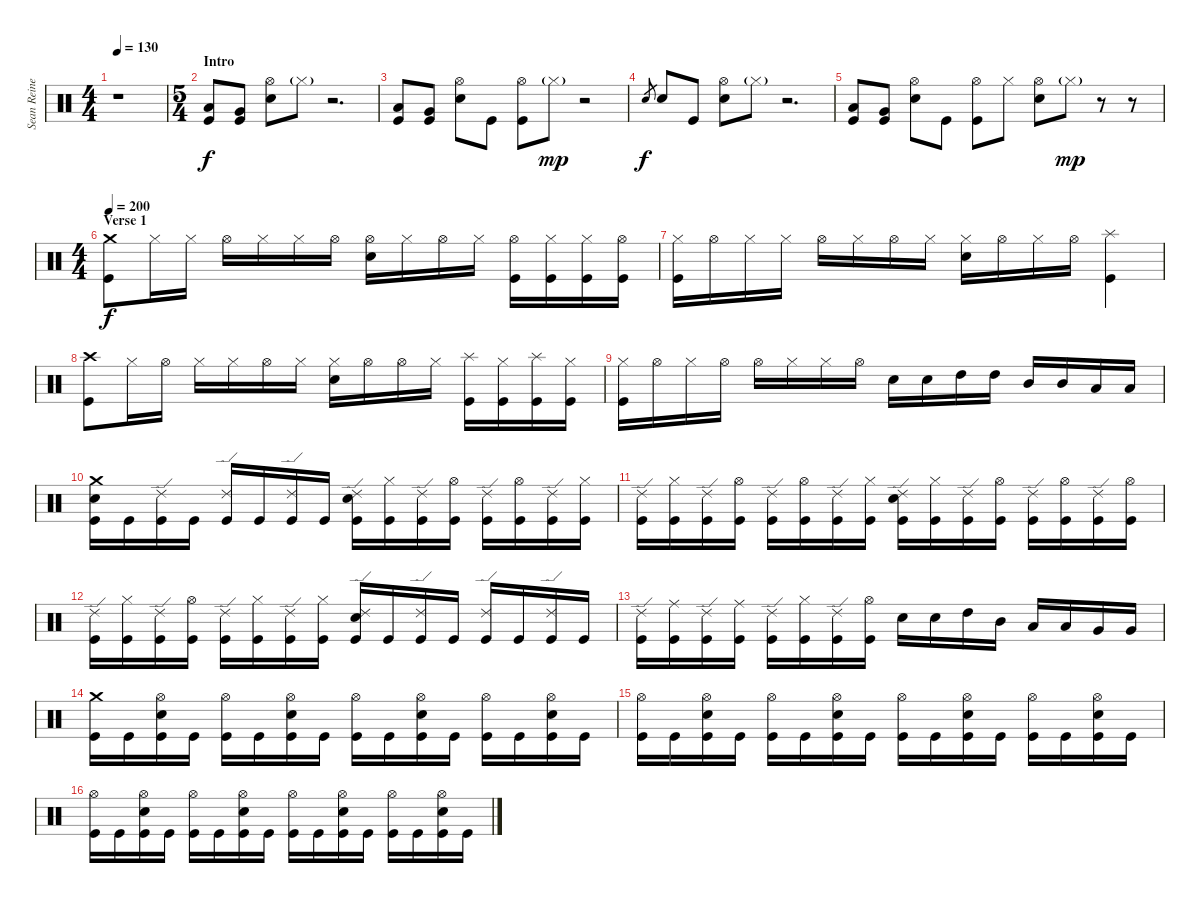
\track ("Sean Reinert " "Sean Reine") {instrument percussion}
\staff {score}
\articulation defaults
\ts (4 4)
\tempo 130
\tempo 145
\tempo 130
\clef neutral
\ks c
r.1{dy f} |
\ts (5 4)
\section ("" "Intro")
("Low Tom (hit)" "Kick (hit)").8 ("Very Low Tom (hit)" "Kick (hit)").8 ("Hi-Hat (open)" "Electric Snare (hit)").8 "Hi-Hat (closed)"{g}.8 r.2{d} |
("Low Tom (hit)" "Kick (hit)").8 ("Very Low Tom (hit)" "Kick (hit)").8 ("Hi-Hat (open)" "Electric Snare (hit)").8 "Kick (hit)".8 ("Hi-Hat (open)" "Kick (hit)").8 "Hi-Hat (closed)"{g}.8{dy mp} r.2 |
"Electric Snare (hit)".8{gr dy f} "Electric Snare (hit)".8 "Kick (hit)".8 ("Hi-Hat (open)" "Electric Snare (hit)").8 "Hi-Hat (closed)"{g}.8 r.2{d} |
("Low Tom (hit)" "Kick (hit)").8 ("Very Low Tom (hit)" "Kick (hit)").8 ("Hi-Hat (open)" "Electric Snare (hit)").8 "Kick (hit)".8 ("Hi-Hat (open)" "Kick (hit)").8 "Hi-Hat (closed)".8 ("Hi-Hat (open)" "Electric Snare (hit)").8 "Hi-Hat (closed)"{g}.8{dy mp} r.8 r.8 |
\ts (4 4)
\section ("" "Verse 1")
\tempo 200
("Crash medium (hit)" "Kick (hit)").8{dy f} "Hi-Hat (closed)".16 "Hi-Hat (closed)".16 "Hi-Hat (open)".16 "Hi-Hat (closed)".16 "Hi-Hat (closed)".16 "Hi-Hat (open)".16 ("Hi-Hat (open)" "Electric Snare (hit)").16 "Hi-Hat (closed)".16 "Hi-Hat (open)".16 "Hi-Hat (closed)".16 ("Hi-Hat (open)" "Kick (hit)").16 ("Hi-Hat (closed)" "Kick (hit)").16 ("Hi-Hat (closed)" "Kick (hit)").16 ("Hi-Hat (open)" "Kick (hit)").16 |
("Hi-Hat (closed)" "Kick (hit)").16 "Hi-Hat (open)".16 "Hi-Hat (closed)".16 "Hi-Hat (closed)".16 "Hi-Hat (open)".16 "Hi-Hat (closed)".16 "Hi-Hat (open)".16 "Hi-Hat (closed)".16 ("Hi-Hat (closed)" "Electric Snare (hit)").16 "Hi-Hat (open)".16 "Hi-Hat (closed)".16 "Hi-Hat (open)".16 ("Splash (hit)" "Kick (hit)").4 |
("Crash high (hit)" "Kick (hit)").8 "Hi-Hat (closed)".16 "Hi-Hat (open)".16 "Hi-Hat (closed)".16 "Hi-Hat (closed)".16 "Hi-Hat (open)".16 "Hi-Hat (closed)".16 ("Hi-Hat (closed)" "Electric Snare (hit)").16 "Hi-Hat (open)".16 "Hi-Hat (open)".16 "Hi-Hat (closed)".16 ("Splash (hit)" "Kick (hit)").16 ("Hi-Hat (closed)" "Kick (hit)").16 ("Splash (hit)" "Kick (hit)").16 ("Hi-Hat (closed)" "Kick (hit)").16 |
("Hi-Hat (closed)" "Kick (hit)").16 "Hi-Hat (open)".16 "Hi-Hat (closed)".16 "Hi-Hat (open)".16 "Hi-Hat (open)".16 "Hi-Hat (closed)".16 "Hi-Hat (closed)".16 "Hi-Hat (open)".16 "Electric Snare (hit)".16 "Electric Snare (hit)".16 "High Tom (hit)".16 "High Tom (hit)".16 "Mid Tom (hit)".16 "Mid Tom (hit)".16 "Low Tom (hit)".16 "Low Tom (hit)".16 |
("Crash medium (hit)" "Electric Snare (hit)" "Kick (hit)").16 "Kick (hit)".16 ("Ride (edge) 2" "Kick (hit)").16 "Kick (hit)".16 ("Ride (edge) 2" "Kick (hit)").16 "Kick (hit)".16 ("Ride (edge) 2" "Kick (hit)").16 "Kick (hit)".16 ("Ride (edge) 2" "Electric Snare (hit)" "Kick (hit)").16 ("Hi-Hat (closed)" "Kick (hit)").16 ("Ride (edge) 2" "Kick (hit)").16 ("Hi-Hat (open)" "Kick (hit)").16 ("Ride (edge) 2" "Kick (hit)").16 ("Hi-Hat (open)" "Kick (hit)").16 ("Ride (edge) 2" "Kick (hit)").16 ("Hi-Hat (closed)" "Kick (hit)").16 |
("Ride (edge) 2" "Kick (hit)").16 ("Hi-Hat (closed)" "Kick (hit)").16 ("Ride (edge) 2" "Kick (hit)").16 ("Hi-Hat (open)" "Kick (hit)").16 ("Ride (edge) 2" "Kick (hit)").16 ("Hi-Hat (open)" "Kick (hit)").16 ("Ride (edge) 2" "Kick (hit)").16 ("Hi-Hat (closed)" "Kick (hit)").16 ("Ride (edge) 2" "Electric Snare (hit)" "Kick (hit)").16 ("Hi-Hat (closed)" "Kick (hit)").16 ("Ride (edge) 2" "Kick (hit)").16 ("Hi-Hat (open)" "Kick (hit)").16 ("Ride (edge) 2" "Kick (hit)").16 ("Hi-Hat (open)" "Kick (hit)").16 ("Ride (edge) 2" "Kick (hit)").16 ("Hi-Hat (open)" "Kick (hit)").16 |
("Ride (edge) 2" "Kick (hit)").16 ("Hi-Hat (closed)" "Kick (hit)").16 ("Ride (edge) 2" "Kick (hit)").16 ("Hi-Hat (open)" "Kick (hit)").16 ("Ride (edge) 2" "Kick (hit)").16 ("Hi-Hat (closed)" "Kick (hit)").16 ("Ride (edge) 2" "Kick (hit)").16 ("Hi-Hat (closed)" "Kick (hit)").16 ("Ride (edge) 2" "Electric Snare (hit)" "Kick (hit)").16 "Kick (hit)".16 ("Ride (edge) 2" "Kick (hit)").16 "Kick (hit)".16 ("Ride (edge) 2" "Kick (hit)").16 "Kick (hit)".16 ("Ride (edge) 2" "Kick (hit)").16 "Kick (hit)".16 |
("Ride (edge) 2" "Kick (hit)").16 ("Ride (middle)" "Kick (hit)").16 ("Ride (edge) 2" "Kick (hit)").16 ("Ride (middle)" "Kick (hit)").16 ("Ride (edge) 2" "Kick (hit)").16 ("Hi-Hat (closed)" "Kick (hit)").16 ("Ride (edge) 2" "Kick (hit)").16 ("Hi-Hat (open)" "Kick (hit)").16 "Electric Snare (hit)".16 "Electric Snare (hit)".16 "High Tom (hit)".16 "Mid Tom (hit)".16 "Low Tom (hit)".16 "Low Tom (hit)".16 "Very Low Tom (hit)".16 "Very Low Tom (hit)".16 |
("Crash medium (hit)" "Kick (hit)").16 "Kick (hit)".16 ("Hi-Hat (open)" "Electric Snare (hit)" "Kick (hit)").16 "Kick (hit)".16 ("Hi-Hat (open)" "Kick (hit)").16 "Kick (hit)".16 ("Hi-Hat (open)" "Electric Snare (hit)" "Kick (hit)").16 "Kick (hit)".16 ("Hi-Hat (open)" "Kick (hit)").16 "Kick (hit)".16 ("Hi-Hat (open)" "Electric Snare (hit)" "Kick (hit)").16 "Kick (hit)".16 ("Hi-Hat (open)" "Kick (hit)").16 "Kick (hit)".16 ("Hi-Hat (open)" "Electric Snare (hit)" "Kick (hit)").16 "Kick (hit)".16 |
("Hi-Hat (open)" "Kick (hit)").16 "Kick (hit)".16 ("Hi-Hat (open)" "Electric Snare (hit)" "Kick (hit)").16 "Kick (hit)".16 ("Hi-Hat (open)" "Kick (hit)").16 "Kick (hit)".16 ("Hi-Hat (open)" "Electric Snare (hit)" "Kick (hit)").16 "Kick (hit)".16 ("Hi-Hat (open)" "Kick (hit)").16 "Kick (hit)".16 ("Hi-Hat (open)" "Electric Snare (hit)" "Kick (hit)").16 "Kick (hit)".16 ("Hi-Hat (open)" "Kick (hit)").16 "Kick (hit)".16 ("Hi-Hat (open)" "Electric Snare (hit)" "Kick (hit)").16 "Kick (hit)".16 |
("Hi-Hat (open)" "Kick (hit)").16 "Kick (hit)".16 ("Hi-Hat (open)" "Electric Snare (hit)" "Kick (hit)").16 "Kick (hit)".16 ("Hi-Hat (open)" "Kick (hit)").16 "Kick (hit)".16 ("Hi-Hat (open)" "Electric Snare (hit)" "Kick (hit)").16 "Kick (hit)".16 ("Hi-Hat (open)" "Kick (hit)").16 "Kick (hit)".16 ("Hi-Hat (open)" "Electric Snare (hit)" "Kick (hit)").16 "Kick (hit)".16 ("Hi-Hat (open)" "Kick (hit)").16 "Kick (hit)".16 ("Hi-Hat (open)" "Electric Snare (hit)" "Kick (hit)").16 "Kick (hit)".16
